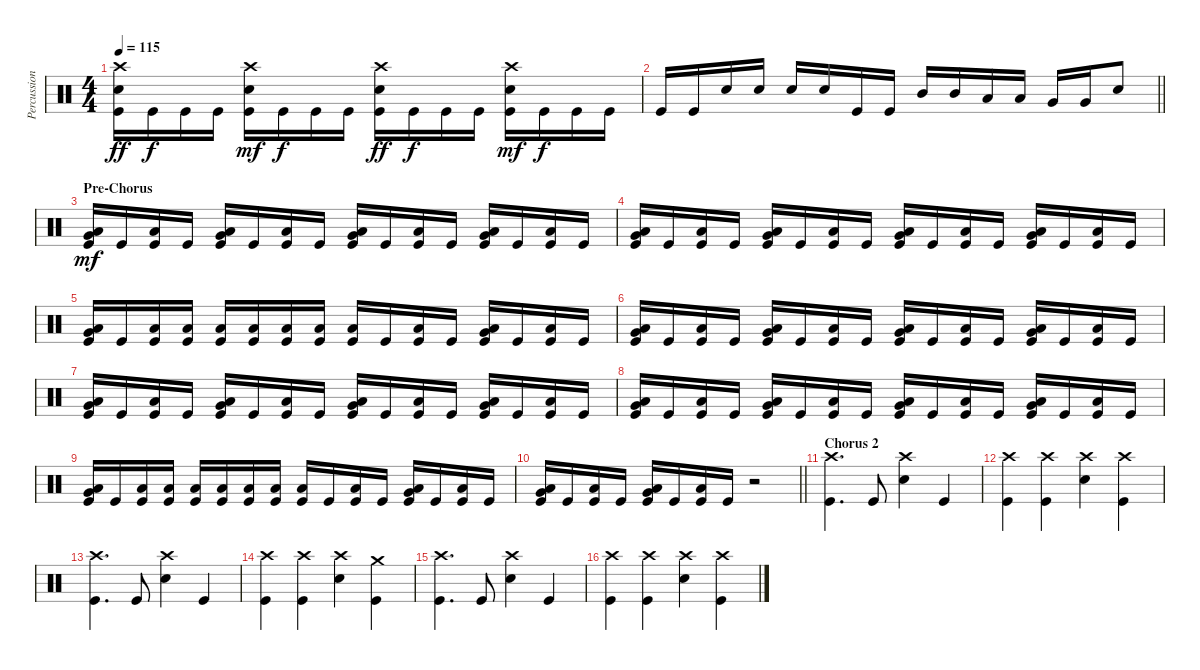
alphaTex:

\track ("Percussion" "Percussion") {instrument percussion}
\staff {score}
\articulation defaults
\ts (4 4)
\tempo 115
\clef neutral
\ks c
("Crash high (hit)" "Snare (hit) 2" "Kick (hit)").16{dy ff} "Kick (hit)".16{dy f} "Kick (hit)".16 "Kick (hit)".16 ("Crash high (hit)" "Snare (hit) 2" "Kick (hit)").16{dy mf} "Kick (hit)".16{dy f} "Kick (hit)".16 "Kick (hit)".16 ("Crash high (hit)" "Snare (hit) 2" "Kick (hit)").16{dy ff} "Kick (hit)".16{dy f} "Kick (hit)".16 "Kick (hit)".16 ("Crash high (hit)" "Snare (hit) 2" "Kick (hit)").16{dy mf} "Kick (hit)".16{dy f} "Kick (hit)".16 "Kick (hit)".16 |
\barLineRight lightlight "Kick (hit)".16 "Kick (hit)".16 "Snare (hit) 2".16 "Snare (hit) 2".16 "Snare (hit) 2".16 "Snare (hit) 2".16 "Kick (hit)".16 "Kick (hit)".16 "Mid Tom (hit)".16 "Mid Tom (hit)".16 "Low Tom (hit)".16 "Low Tom (hit)".16 "Very Low Tom (hit)".16 "Very Low Tom (hit)".16 "Snare (hit) 2".8
|
\section ("" "Pre-Chorus")
("Very Low Tom (hit)" "Low Floor Tom (hit)" "Kick (hit)").16{dy mf} "Kick (hit)".16 ("Low Floor Tom (hit)" "Kick (hit)").16 "Kick (hit)".16 ("Very Low Tom (hit)" "Low Floor Tom (hit)" "Kick (hit)").16 "Kick (hit)".16 ("Low Floor Tom (hit)" "Kick (hit)").16 "Kick (hit)".16 ("Very Low Tom (hit)" "Low Floor Tom (hit)" "Kick (hit)").16 "Kick (hit)".16 ("Low Floor Tom (hit)" "Kick (hit)").16 "Kick (hit)".16 ("Very Low Tom (hit)" "Low Floor Tom (hit)" "Kick (hit)").16 "Kick (hit)".16 ("Low Floor Tom (hit)" "Kick (hit)").16 "Kick (hit)".16 |
("Very Low Tom (hit)" "Low Floor Tom (hit)" "Kick (hit)").16 "Kick (hit)".16 ("Low Floor Tom (hit)" "Kick (hit)").16 "Kick (hit)".16 ("Very Low Tom (hit)" "Low Floor Tom (hit)" "Kick (hit)").16 "Kick (hit)".16 ("Low Floor Tom (hit)" "Kick (hit)").16 "Kick (hit)".16 ("Very Low Tom (hit)" "Low Floor Tom (hit)" "Kick (hit)").16 "Kick (hit)".16 ("Low Floor Tom (hit)" "Kick (hit)").16 "Kick (hit)".16 ("Very Low Tom (hit)" "Low Floor Tom (hit)" "Kick (hit)").16 "Kick (hit)".16 ("Low Floor Tom (hit)" "Kick (hit)").16 "Kick (hit)".16 |
("Very Low Tom (hit)" "Low Floor Tom (hit)" "Kick (hit)").16 "Kick (hit)".16 ("Low Floor Tom (hit)" "Kick (hit)").16 ("Low Floor Tom (hit)" "Kick (hit)").16 ("Low Floor Tom (hit)" "Kick (hit)").16 ("Low Floor Tom (hit)" "Kick (hit)").16 ("Low Floor Tom (hit)" "Kick (hit)").16 ("Low Floor Tom (hit)" "Kick (hit)").16 ("Low Floor Tom (hit)" "Kick (hit)").16 "Kick (hit)".16 ("Low Floor Tom (hit)" "Kick (hit)").16 "Kick (hit)".16 ("Very Low Tom (hit)" "Low Floor Tom (hit)" "Kick (hit)").16 "Kick (hit)".16 ("Low Floor Tom (hit)" "Kick (hit)").16 "Kick (hit)".16 |
("Very Low Tom (hit)" "Low Floor Tom (hit)" "Kick (hit)").16 "Kick (hit)".16 ("Low Floor Tom (hit)" "Kick (hit)").16 "Kick (hit)".16 ("Very Low Tom (hit)" "Low Floor Tom (hit)" "Kick (hit)").16 "Kick (hit)".16 ("Low Floor Tom (hit)" "Kick (hit)").16 "Kick (hit)".16 ("Very Low Tom (hit)" "Low Floor Tom (hit)" "Kick (hit)").16 "Kick (hit)".16 ("Low Floor Tom (hit)" "Kick (hit)").16 "Kick (hit)".16 ("Very Low Tom (hit)" "Low Floor Tom (hit)" "Kick (hit)").16 "Kick (hit)".16 ("Low Floor Tom (hit)" "Kick (hit)").16 "Kick (hit)".16 |
("Very Low Tom (hit)" "Low Floor Tom (hit)" "Kick (hit)").16 "Kick (hit)".16 ("Low Floor Tom (hit)" "Kick (hit)").16 "Kick (hit)".16 ("Very Low Tom (hit)" "Low Floor Tom (hit)" "Kick (hit)").16 "Kick (hit)".16 ("Low Floor Tom (hit)" "Kick (hit)").16 "Kick (hit)".16 ("Very Low Tom (hit)" "Low Floor Tom (hit)" "Kick (hit)").16 "Kick (hit)".16 ("Low Floor Tom (hit)" "Kick (hit)").16 "Kick (hit)".16 ("Very Low Tom (hit)" "Low Floor Tom (hit)" "Kick (hit)").16 "Kick (hit)".16 ("Low Floor Tom (hit)" "Kick (hit)").16 "Kick (hit)".16 |
("Very Low Tom (hit)" "Low Floor Tom (hit)" "Kick (hit)").16 "Kick (hit)".16 ("Low Floor Tom (hit)" "Kick (hit)").16 "Kick (hit)".16 ("Very Low Tom (hit)" "Low Floor Tom (hit)" "Kick (hit)").16 "Kick (hit)".16 ("Low Floor Tom (hit)" "Kick (hit)").16 "Kick (hit)".16 ("Very Low Tom (hit)" "Low Floor Tom (hit)" "Kick (hit)").16 "Kick (hit)".16 ("Low Floor Tom (hit)" "Kick (hit)").16 "Kick (hit)".16 ("Very Low Tom (hit)" "Low Floor Tom (hit)" "Kick (hit)").16 "Kick (hit)".16 ("Low Floor Tom (hit)" "Kick (hit)").16 "Kick (hit)".16 |
("Very Low Tom (hit)" "Low Floor Tom (hit)" "Kick (hit)").16 "Kick (hit)".16 ("Low Floor Tom (hit)" "Kick (hit)").16 ("Low Floor Tom (hit)" "Kick (hit)").16 ("Low Floor Tom (hit)" "Kick (hit)").16 ("Low Floor Tom (hit)" "Kick (hit)").16 ("Low Floor Tom (hit)" "Kick (hit)").16 ("Low Floor Tom (hit)" "Kick (hit)").16 ("Low Floor Tom (hit)" "Kick (hit)").16 "Kick (hit)".16 ("Low Floor Tom (hit)" "Kick (hit)").16 "Kick (hit)".16 ("Very Low Tom (hit)" "Low Floor Tom (hit)" "Kick (hit)").16 "Kick (hit)".16 ("Low Floor Tom (hit)" "Kick (hit)").16 "Kick (hit)".16 |
\barLineRight lightlight
("Very Low Tom (hit)" "Low Floor Tom (hit)" "Kick (hit)").16 "Kick (hit)".16 ("Low Floor Tom (hit)" "Kick (hit)").16 "Kick (hit)".16 ("Very Low Tom (hit)" "Low Floor Tom (hit)" "Kick (hit)").16 "Kick (hit)".16 ("Low Floor Tom (hit)" "Kick (hit)").16 "Kick (hit)".16 r.2 |
\section ("" "Chorus 2")
("Crash high (hit)" "Kick (hit)").4{d} "Kick (hit)".8 ("Snare (hit) 2" "Crash high (hit)").4 "Kick (hit)".4 |
("Crash high (hit)" "Kick (hit)").4 ("Crash high (hit)" "Kick (hit)").4 ("Snare (hit) 2" "Crash high (hit)").4 ("Crash high (hit)" "Kick (hit)").4 |
("Crash high (hit)" "Kick (hit)").4{d} "Kick (hit)".8 ("Snare (hit) 2" "Crash high (hit)").4 "Kick (hit)".4 |
("Crash high (hit)" "Kick (hit)").4 ("Crash high (hit)" "Kick (hit)").4 ("Snare (hit) 2" "Crash high (hit)").4 ("Crash medium (hit)" "Kick (hit)").4 |
("Crash high (hit)" "Kick (hit)").4{d} "Kick (hit)".8 ("Snare (hit) 2" "Crash high (hit)").4 "Kick (hit)".4 |
("Crash high (hit)" "Kick (hit)").4 ("Crash high (hit)" "Kick (hit)").4 ("Snare (hit) 2" "Crash high (hit)").4 ("Crash high (hit)" "Kick (hit)").4
